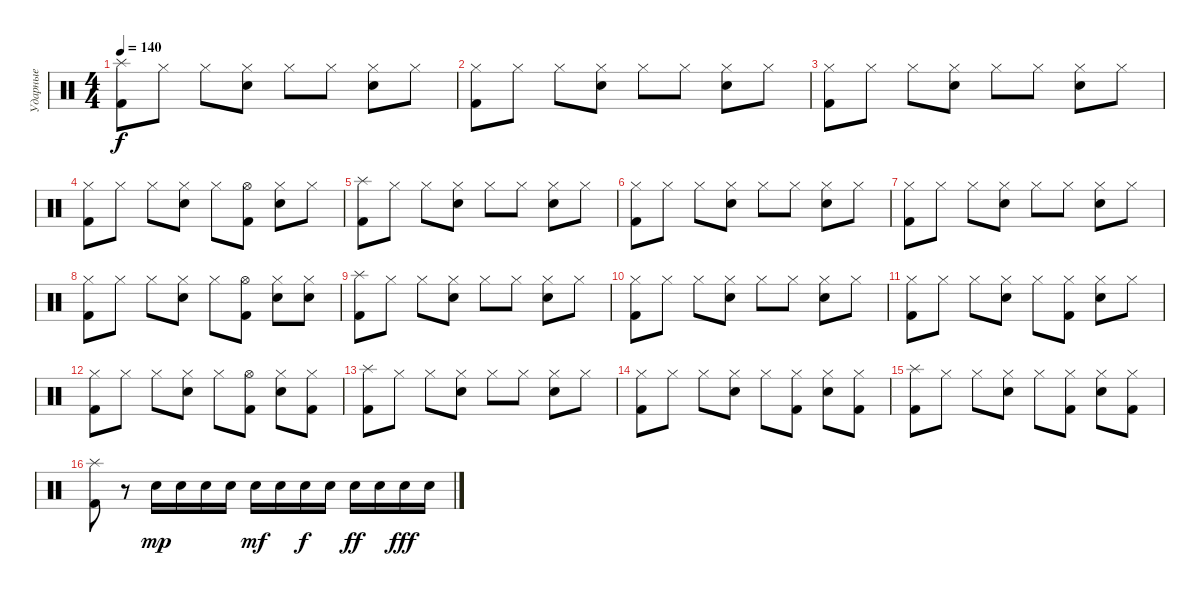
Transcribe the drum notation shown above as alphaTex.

\track ("Ударные" "Ударные") {instrument percussion}
\staff {score}
\articulation defaults
\ts (4 4)
\tempo 140
\clef neutral
\ks c
("Splash (hit)" "Kick (hit) 2").8{dy f} "Hi-Hat (closed)".8 "Hi-Hat (closed)".8 ("Hi-Hat (closed)" "Electric Snare (hit)").8 "Hi-Hat (closed)".8 "Hi-Hat (closed)".8 ("Hi-Hat (closed)" "Electric Snare (hit)").8 "Hi-Hat (closed)".8 |
("Hi-Hat (closed)" "Kick (hit) 2").8 "Hi-Hat (closed)".8 "Hi-Hat (closed)".8 ("Hi-Hat (closed)" "Electric Snare (hit)").8 "Hi-Hat (closed)".8 "Hi-Hat (closed)".8 ("Hi-Hat (closed)" "Electric Snare (hit)").8 "Hi-Hat (closed)".8 |
("Hi-Hat (closed)" "Kick (hit) 2").8 "Hi-Hat (closed)".8 "Hi-Hat (closed)".8 ("Hi-Hat (closed)" "Electric Snare (hit)").8 "Hi-Hat (closed)".8 "Hi-Hat (closed)".8 ("Hi-Hat (closed)" "Electric Snare (hit)").8 "Hi-Hat (closed)".8 |
("Hi-Hat (closed)" "Kick (hit) 2").8 "Hi-Hat (closed)".8 "Hi-Hat (closed)".8 ("Hi-Hat (closed)" "Electric Snare (hit)").8 "Hi-Hat (closed)".8 ("Hi-Hat (open)" "Kick (hit) 2").8 ("Hi-Hat (closed)" "Electric Snare (hit)").8 "Hi-Hat (closed)".8 |
("Splash (hit)" "Kick (hit) 2").8 "Hi-Hat (closed)".8 "Hi-Hat (closed)".8 ("Hi-Hat (closed)" "Electric Snare (hit)").8 "Hi-Hat (closed)".8 "Hi-Hat (closed)".8 ("Hi-Hat (closed)" "Electric Snare (hit)").8 "Hi-Hat (closed)".8 |
("Hi-Hat (closed)" "Kick (hit) 2").8 "Hi-Hat (closed)".8 "Hi-Hat (closed)".8 ("Hi-Hat (closed)" "Electric Snare (hit)").8 "Hi-Hat (closed)".8 "Hi-Hat (closed)".8 ("Hi-Hat (closed)" "Electric Snare (hit)").8 "Hi-Hat (closed)".8 |
("Hi-Hat (closed)" "Kick (hit) 2").8 "Hi-Hat (closed)".8 "Hi-Hat (closed)".8 ("Hi-Hat (closed)" "Electric Snare (hit)").8 "Hi-Hat (closed)".8 "Hi-Hat (closed)".8 ("Hi-Hat (closed)" "Electric Snare (hit)").8 "Hi-Hat (closed)".8 |
("Hi-Hat (closed)" "Kick (hit) 2").8 "Hi-Hat (closed)".8 "Hi-Hat (closed)".8 ("Hi-Hat (closed)" "Electric Snare (hit)").8 "Hi-Hat (closed)".8 ("Hi-Hat (open)" "Kick (hit) 2").8 ("Hi-Hat (closed)" "Electric Snare (hit)").8 ("Hi-Hat (closed)" "Electric Snare (hit)").8 |
("Splash (hit)" "Kick (hit) 2").8 "Hi-Hat (closed)".8 "Hi-Hat (closed)".8 ("Hi-Hat (closed)" "Electric Snare (hit)").8 "Hi-Hat (closed)".8 "Hi-Hat (closed)".8 ("Hi-Hat (closed)" "Electric Snare (hit)").8 "Hi-Hat (closed)".8 |
("Hi-Hat (closed)" "Kick (hit) 2").8 "Hi-Hat (closed)".8 "Hi-Hat (closed)".8 ("Hi-Hat (closed)" "Electric Snare (hit)").8 "Hi-Hat (closed)".8 "Hi-Hat (closed)".8 ("Hi-Hat (closed)" "Electric Snare (hit)").8 "Hi-Hat (closed)".8 |
("Hi-Hat (closed)" "Kick (hit) 2").8 "Hi-Hat (closed)".8 "Hi-Hat (closed)".8 ("Hi-Hat (closed)" "Electric Snare (hit)").8 "Hi-Hat (closed)".8 ("Hi-Hat (closed)" "Kick (hit) 2").8 ("Hi-Hat (closed)" "Electric Snare (hit)").8 "Hi-Hat (closed)".8 |
("Hi-Hat (closed)" "Kick (hit) 2").8 "Hi-Hat (closed)".8 "Hi-Hat (closed)".8 ("Hi-Hat (closed)" "Electric Snare (hit)").8 "Hi-Hat (closed)".8 ("Hi-Hat (open)" "Kick (hit) 2").8 ("Hi-Hat (closed)" "Electric Snare (hit)").8 ("Hi-Hat (closed)" "Kick (hit) 2").8 |
("Splash (hit)" "Kick (hit) 2").8 "Hi-Hat (closed)".8 "Hi-Hat (closed)".8 ("Hi-Hat (closed)" "Electric Snare (hit)").8 "Hi-Hat (closed)".8 "Hi-Hat (closed)".8 ("Hi-Hat (closed)" "Electric Snare (hit)").8 "Hi-Hat (closed)".8 |
("Hi-Hat (closed)" "Kick (hit) 2").8 "Hi-Hat (closed)".8 "Hi-Hat (closed)".8 ("Hi-Hat (closed)" "Electric Snare (hit)").8 "Hi-Hat (closed)".8 ("Hi-Hat (closed)" "Kick (hit) 2").8 ("Hi-Hat (closed)" "Electric Snare (hit)").8 ("Hi-Hat (closed)" "Kick (hit) 2").8 |
("Splash (hit)" "Kick (hit) 2").8 "Hi-Hat (closed)".8 "Hi-Hat (closed)".8 ("Hi-Hat (closed)" "Electric Snare (hit)").8 "Hi-Hat (closed)".8 ("Hi-Hat (closed)" "Kick (hit) 2").8 ("Hi-Hat (closed)" "Electric Snare (hit)").8 ("Hi-Hat (closed)" "Kick (hit) 2").8 |
("Splash (hit)" "Kick (hit) 2").8 r.8 "Electric Snare (hit)".16{dy mp} "Electric Snare (hit)".16 "Electric Snare (hit)".16 "Electric Snare (hit)".16 "Electric Snare (hit)".16{dy mf} "Electric Snare (hit)".16 "Electric Snare (hit)".16{dy f} "Electric Snare (hit)".16 "Electric Snare (hit)".16{dy ff} "Electric Snare (hit)".16 "Electric Snare (hit)".16{dy fff} "Electric Snare (hit)".16
